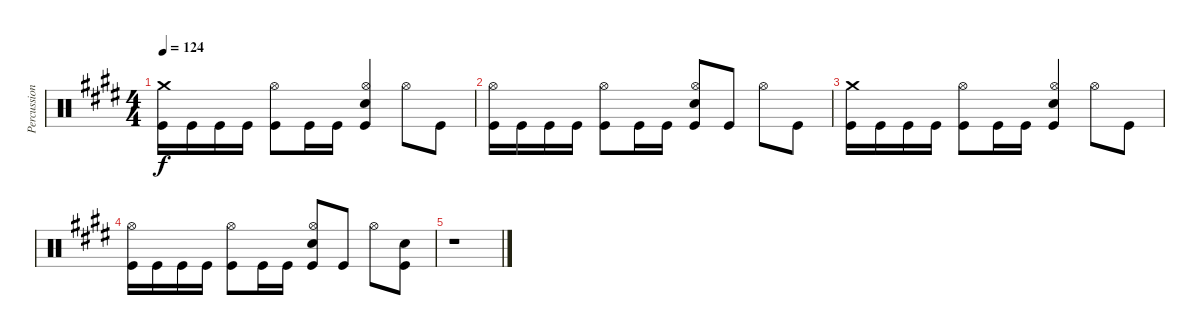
\track ("Percussion" "Percussion") {instrument percussion}
\staff {score}
\articulation defaults
\ts (4 4)
\tempo 124
\clef neutral
\ks e
("Crash medium (hit)" "Kick (hit)").16{dy f} "Kick (hit)".16 "Kick (hit)".16 "Kick (hit)".16 ("Hi-Hat (open)" "Kick (hit)").8 "Kick (hit)".16 "Kick (hit)".16 ("Hi-Hat (open)" "Electric Snare (hit)" "Kick (hit)").4 "Hi-Hat (open)".8 "Kick (hit)".8 |
("Hi-Hat (open)" "Kick (hit)").16 "Kick (hit)".16 "Kick (hit)".16 "Kick (hit)".16 ("Hi-Hat (open)" "Kick (hit)").8 "Kick (hit)".16 "Kick (hit)".16 ("Hi-Hat (open)" "Electric Snare (hit)" "Kick (hit)").8 "Kick (hit)".8 "Hi-Hat (open)".8 "Kick (hit)".8 |
("Crash medium (hit)" "Kick (hit)").16 "Kick (hit)".16 "Kick (hit)".16 "Kick (hit)".16 ("Hi-Hat (open)" "Kick (hit)").8 "Kick (hit)".16 "Kick (hit)".16 ("Hi-Hat (open)" "Electric Snare (hit)" "Kick (hit)").4 "Hi-Hat (open)".8 "Kick (hit)".8 |
("Hi-Hat (open)" "Kick (hit)").16 "Kick (hit)".16 "Kick (hit)".16 "Kick (hit)".16 ("Hi-Hat (open)" "Kick (hit)").8 "Kick (hit)".16 "Kick (hit)".16 ("Hi-Hat (open)" "Electric Snare (hit)" "Kick (hit)").8 "Kick (hit)".8 "Hi-Hat (open)".8 ("Electric Snare (hit)" "Kick (hit)").8 |
r.1
